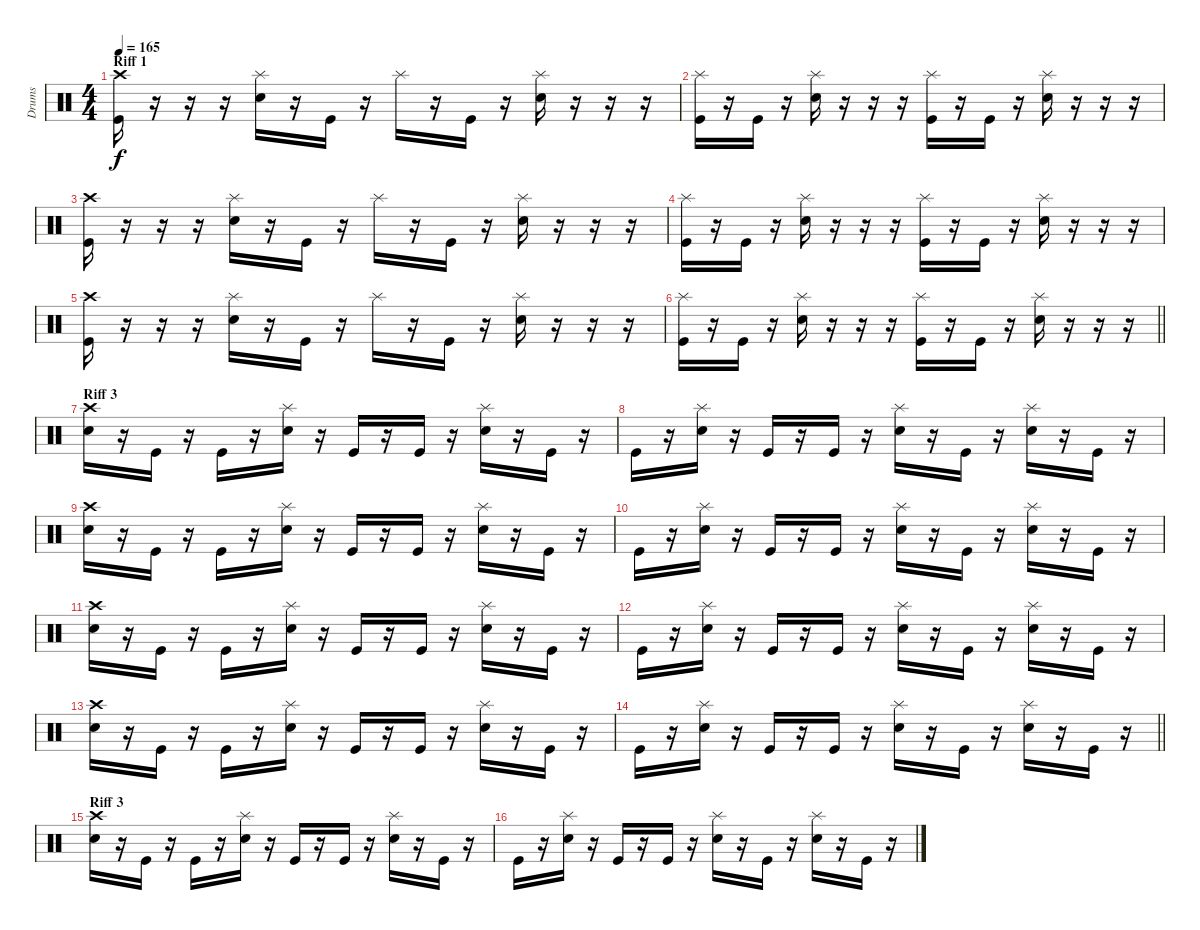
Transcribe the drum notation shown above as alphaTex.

\track ("Drums" "Drums") {instrument percussion}
\staff {score}
\articulation defaults
\ts (4 4)
\section ("" "Riff 1")
\tempo 165
\clef neutral
\ks c
("Crash high (hit)" "Kick (hit)").16{dy f} r.16 r.16 r.16 ("Splash (hit)" "Electric Snare (hit)").16 r.16 "Kick (hit)".16 r.16 "Splash (hit)".16 r.16 "Kick (hit)".16 r.16 ("Splash (hit)" "Electric Snare (hit)").16 r.16 r.16 r.16 |
("Splash (hit)" "Kick (hit)").16 r.16 "Kick (hit)".16 r.16 ("Splash (hit)" "Electric Snare (hit)").16 r.16 r.16 r.16 ("Splash (hit)" "Kick (hit)").16 r.16 "Kick (hit)".16 r.16 ("Splash (hit)" "Electric Snare (hit)").16 r.16 r.16 r.16 |
("Crash high (hit)" "Kick (hit)").16 r.16 r.16 r.16 ("Splash (hit)" "Electric Snare (hit)").16 r.16 "Kick (hit)".16 r.16 "Splash (hit)".16 r.16 "Kick (hit)".16 r.16 ("Splash (hit)" "Electric Snare (hit)").16 r.16 r.16 r.16 |
("Splash (hit)" "Kick (hit)").16 r.16 "Kick (hit)".16 r.16 ("Splash (hit)" "Electric Snare (hit)").16 r.16 r.16 r.16 ("Splash (hit)" "Kick (hit)").16 r.16 "Kick (hit)".16 r.16 ("Splash (hit)" "Electric Snare (hit)").16 r.16 r.16 r.16 |
("Crash high (hit)" "Kick (hit)").16 r.16 r.16 r.16 ("Splash (hit)" "Electric Snare (hit)").16 r.16 "Kick (hit)".16 r.16 "Splash (hit)".16 r.16 "Kick (hit)".16 r.16 ("Splash (hit)" "Electric Snare (hit)").16 r.16 r.16 r.16 |
\barLineRight lightlight
("Splash (hit)" "Kick (hit)").16 r.16 "Kick (hit)".16 r.16 ("Splash (hit)" "Electric Snare (hit)").16 r.16 r.16 r.16 ("Splash (hit)" "Kick (hit)").16 r.16 "Kick (hit)".16 r.16 ("Splash (hit)" "Electric Snare (hit)").16 r.16 r.16 r.16 |
\section ("" "Riff 3")
("Crash high (hit)" "Electric Snare (hit)").16 r.16 "Kick (hit)".16 r.16 "Kick (hit)".16 r.16 ("Splash (hit)" "Electric Snare (hit)").16 r.16 "Kick (hit)".16 r.16 "Kick (hit)".16 r.16 ("Splash (hit)" "Electric Snare (hit)").16 r.16 "Kick (hit)".16 r.16 |
"Kick (hit)".16 r.16 ("Splash (hit)" "Electric Snare (hit)").16 r.16 "Kick (hit)".16 r.16 "Kick (hit)".16 r.16 ("Splash (hit)" "Electric Snare (hit)").16 r.16 "Kick (hit)".16 r.16 ("Splash (hit)" "Electric Snare (hit)").16 r.16 "Kick (hit)".16 r.16 |
("Crash high (hit)" "Electric Snare (hit)").16 r.16 "Kick (hit)".16 r.16 "Kick (hit)".16 r.16 ("Splash (hit)" "Electric Snare (hit)").16 r.16 "Kick (hit)".16 r.16 "Kick (hit)".16 r.16 ("Splash (hit)" "Electric Snare (hit)").16 r.16 "Kick (hit)".16 r.16 |
"Kick (hit)".16 r.16 ("Splash (hit)" "Electric Snare (hit)").16 r.16 "Kick (hit)".16 r.16 "Kick (hit)".16 r.16 ("Splash (hit)" "Electric Snare (hit)").16 r.16 "Kick (hit)".16 r.16 ("Splash (hit)" "Electric Snare (hit)").16 r.16 "Kick (hit)".16 r.16 |
("Crash high (hit)" "Electric Snare (hit)").16 r.16 "Kick (hit)".16 r.16 "Kick (hit)".16 r.16 ("Splash (hit)" "Electric Snare (hit)").16 r.16 "Kick (hit)".16 r.16 "Kick (hit)".16 r.16 ("Splash (hit)" "Electric Snare (hit)").16 r.16 "Kick (hit)".16 r.16 |
"Kick (hit)".16 r.16 ("Splash (hit)" "Electric Snare (hit)").16 r.16 "Kick (hit)".16 r.16 "Kick (hit)".16 r.16 ("Splash (hit)" "Electric Snare (hit)").16 r.16 "Kick (hit)".16 r.16 ("Splash (hit)" "Electric Snare (hit)").16 r.16 "Kick (hit)".16 r.16 |
("Crash high (hit)" "Electric Snare (hit)").16 r.16 "Kick (hit)".16 r.16 "Kick (hit)".16 r.16 ("Splash (hit)" "Electric Snare (hit)").16 r.16 "Kick (hit)".16 r.16 "Kick (hit)".16 r.16 ("Splash (hit)" "Electric Snare (hit)").16 r.16 "Kick (hit)".16 r.16 |
\barLineRight lightlight "Kick (hit)".16
r.16 ("Splash (hit)" "Electric Snare (hit)").16 r.16 "Kick (hit)".16 r.16 "Kick (hit)".16 r.16 ("Splash (hit)" "Electric Snare (hit)").16 r.16 "Kick (hit)".16 r.16 ("Splash (hit)" "Electric Snare (hit)").16 r.16 "Kick (hit)".16 r.16 |
\section ("" "Riff 3")
("Crash high (hit)" "Electric Snare (hit)").16 r.16 "Kick (hit)".16 r.16 "Kick (hit)".16 r.16 ("Splash (hit)" "Electric Snare (hit)").16 r.16 "Kick (hit)".16 r.16 "Kick (hit)".16 r.16 ("Splash (hit)" "Electric Snare (hit)").16 r.16 "Kick (hit)".16 r.16 |
"Kick (hit)".16 r.16 ("Splash (hit)" "Electric Snare (hit)").16 r.16 "Kick (hit)".16 r.16 "Kick (hit)".16 r.16 ("Splash (hit)" "Electric Snare (hit)").16 r.16 "Kick (hit)".16 r.16 ("Splash (hit)" "Electric Snare (hit)").16 r.16 "Kick (hit)".16 r.16
